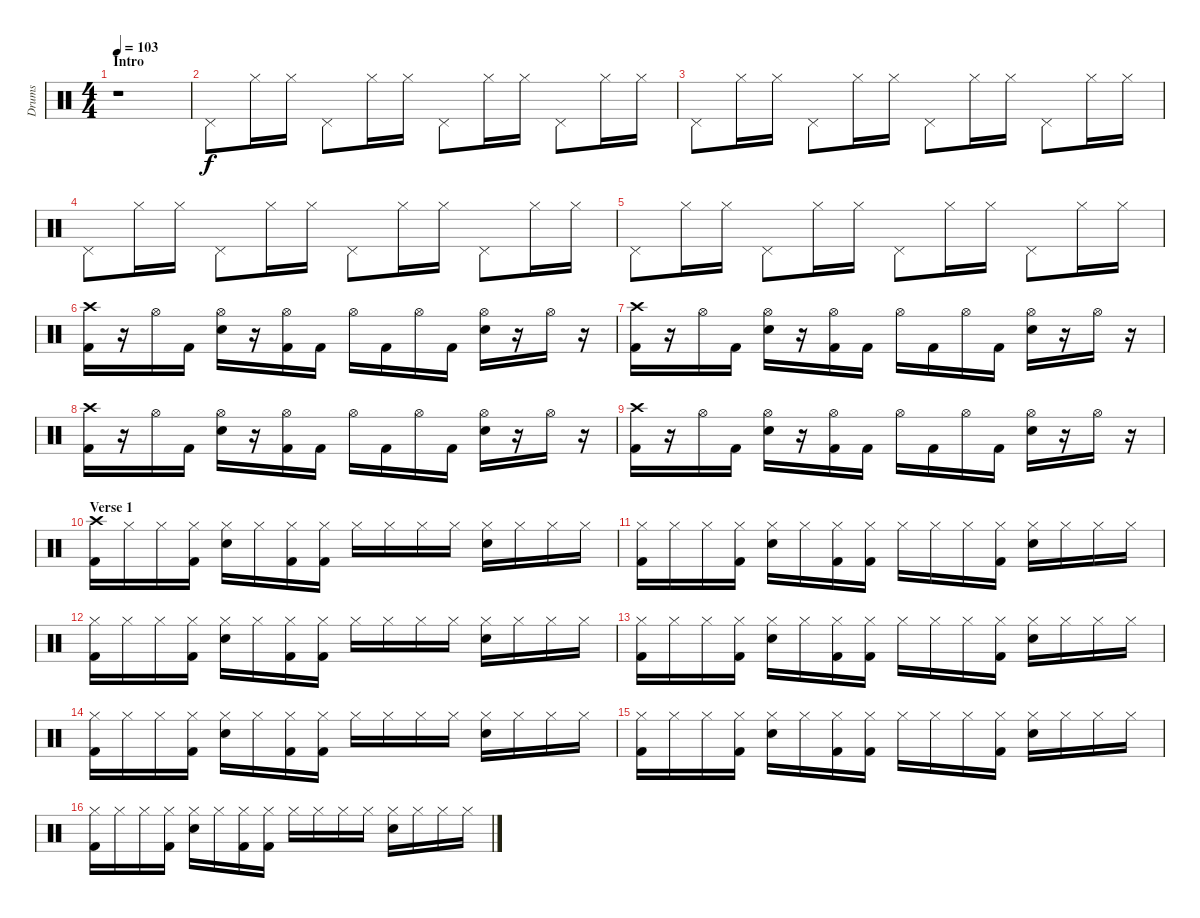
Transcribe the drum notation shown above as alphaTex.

\track ("Drums" "Drums") {instrument percussion}
\staff {score}
\articulation defaults
\ts (4 4)
\section ("" "Intro")
\tempo 103
\clef neutral
\ks c
r.1{dy f} |
"Pedal Hi-Hat (hit)".8 "Hi-Hat (closed)".16 "Hi-Hat (closed)".16 "Pedal Hi-Hat (hit)".8 "Hi-Hat (closed)".16 "Hi-Hat (closed)".16 "Pedal Hi-Hat (hit)".8 "Hi-Hat (closed)".16 "Hi-Hat (closed)".16 "Pedal Hi-Hat (hit)".8 "Hi-Hat (closed)".16 "Hi-Hat (closed)".16 |
"Pedal Hi-Hat (hit)".8 "Hi-Hat (closed)".16 "Hi-Hat (closed)".16 "Pedal Hi-Hat (hit)".8 "Hi-Hat (closed)".16 "Hi-Hat (closed)".16 "Pedal Hi-Hat (hit)".8 "Hi-Hat (closed)".16 "Hi-Hat (closed)".16 "Pedal Hi-Hat (hit)".8 "Hi-Hat (closed)".16 "Hi-Hat (closed)".16 |
"Pedal Hi-Hat (hit)".8 "Hi-Hat (closed)".16 "Hi-Hat (closed)".16 "Pedal Hi-Hat (hit)".8 "Hi-Hat (closed)".16 "Hi-Hat (closed)".16 "Pedal Hi-Hat (hit)".8 "Hi-Hat (closed)".16 "Hi-Hat (closed)".16 "Pedal Hi-Hat (hit)".8 "Hi-Hat (closed)".16 "Hi-Hat (closed)".16 |
"Pedal Hi-Hat (hit)".8 "Hi-Hat (closed)".16 "Hi-Hat (closed)".16 "Pedal Hi-Hat (hit)".8 "Hi-Hat (closed)".16 "Hi-Hat (closed)".16 "Pedal Hi-Hat (hit)".8 "Hi-Hat (closed)".16 "Hi-Hat (closed)".16 "Pedal Hi-Hat (hit)".8 "Hi-Hat (closed)".16 "Hi-Hat (closed)".16 |
("Crash high (hit)" "Kick (hit) 2").16 r.16 "Hi-Hat (open)".16 "Kick (hit) 2".16 ("Hi-Hat (open)" "Electric Snare (hit)").16 r.16 ("Hi-Hat (open)" "Kick (hit) 2").16 "Kick (hit) 2".16 "Hi-Hat (open)".16 "Kick (hit) 2".16 "Hi-Hat (open)".16 "Kick (hit) 2".16 ("Hi-Hat (open)" "Electric Snare (hit)").16 r.16 "Hi-Hat (open)".16 r.16 |
("Crash high (hit)" "Kick (hit) 2").16 r.16 "Hi-Hat (open)".16 "Kick (hit) 2".16 ("Hi-Hat (open)" "Electric Snare (hit)").16 r.16 ("Hi-Hat (open)" "Kick (hit) 2").16 "Kick (hit) 2".16 "Hi-Hat (open)".16 "Kick (hit) 2".16 "Hi-Hat (open)".16 "Kick (hit) 2".16 ("Hi-Hat (open)" "Electric Snare (hit)").16 r.16 "Hi-Hat (open)".16 r.16 |
("Crash high (hit)" "Kick (hit) 2").16 r.16 "Hi-Hat (open)".16 "Kick (hit) 2".16 ("Hi-Hat (open)" "Electric Snare (hit)").16 r.16 ("Hi-Hat (open)" "Kick (hit) 2").16 "Kick (hit) 2".16 "Hi-Hat (open)".16 "Kick (hit) 2".16 "Hi-Hat (open)".16 "Kick (hit) 2".16 ("Hi-Hat (open)" "Electric Snare (hit)").16 r.16 "Hi-Hat (open)".16 r.16 |
("Crash high (hit)" "Kick (hit) 2").16 r.16 "Hi-Hat (open)".16 "Kick (hit) 2".16 ("Hi-Hat (open)" "Electric Snare (hit)").16 r.16 ("Hi-Hat (open)" "Kick (hit) 2").16 "Kick (hit) 2".16 "Hi-Hat (open)".16 "Kick (hit) 2".16 "Hi-Hat (open)".16 "Kick (hit) 2".16 ("Hi-Hat (open)" "Electric Snare (hit)").16 r.16 "Hi-Hat (open)".16 r.16 |
\section ("" "Verse 1")
("Crash high (hit)" "Kick (hit) 2").16 "Hi-Hat (closed)".16 "Hi-Hat (closed)".16 ("Hi-Hat (closed)" "Kick (hit) 2").16 ("Hi-Hat (closed)" "Electric Snare (hit)").16 "Hi-Hat (closed)".16 ("Hi-Hat (closed)" "Kick (hit) 2").16 ("Hi-Hat (closed)" "Kick (hit) 2").16 "Hi-Hat (closed)".16 "Hi-Hat (closed)".16 "Hi-Hat (closed)".16 "Hi-Hat (closed)".16 ("Hi-Hat (closed)" "Electric Snare (hit)").16 "Hi-Hat (closed)".16 "Hi-Hat (closed)".16 "Hi-Hat (closed)".16 |
("Hi-Hat (closed)" "Kick (hit) 2").16 "Hi-Hat (closed)".16 "Hi-Hat (closed)".16 ("Hi-Hat (closed)" "Kick (hit) 2").16 ("Hi-Hat (closed)" "Electric Snare (hit)").16 "Hi-Hat (closed)".16 ("Hi-Hat (closed)" "Kick (hit) 2").16 ("Hi-Hat (closed)" "Kick (hit) 2").16 "Hi-Hat (closed)".16 "Hi-Hat (closed)".16 "Hi-Hat (closed)".16 ("Hi-Hat (closed)" "Kick (hit) 2").16 ("Hi-Hat (closed)" "Electric Snare (hit)").16 "Hi-Hat (closed)".16 "Hi-Hat (closed)".16 "Hi-Hat (closed)".16 |
("Hi-Hat (closed)" "Kick (hit) 2").16 "Hi-Hat (closed)".16 "Hi-Hat (closed)".16 ("Hi-Hat (closed)" "Kick (hit) 2").16 ("Hi-Hat (closed)" "Electric Snare (hit)").16 "Hi-Hat (closed)".16 ("Hi-Hat (closed)" "Kick (hit) 2").16 ("Hi-Hat (closed)" "Kick (hit) 2").16 "Hi-Hat (closed)".16 "Hi-Hat (closed)".16 "Hi-Hat (closed)".16 "Hi-Hat (closed)".16 ("Hi-Hat (closed)" "Electric Snare (hit)").16 "Hi-Hat (closed)".16 "Hi-Hat (closed)".16 "Hi-Hat (closed)".16 |
("Hi-Hat (closed)" "Kick (hit) 2").16 "Hi-Hat (closed)".16 "Hi-Hat (closed)".16 ("Hi-Hat (closed)" "Kick (hit) 2").16 ("Hi-Hat (closed)" "Electric Snare (hit)").16 "Hi-Hat (closed)".16 ("Hi-Hat (closed)" "Kick (hit) 2").16 ("Hi-Hat (closed)" "Kick (hit) 2").16 "Hi-Hat (closed)".16 "Hi-Hat (closed)".16 "Hi-Hat (closed)".16 ("Hi-Hat (closed)" "Kick (hit) 2").16 ("Hi-Hat (closed)" "Electric Snare (hit)").16 "Hi-Hat (closed)".16 "Hi-Hat (closed)".16 "Hi-Hat (closed)".16 |
("Hi-Hat (closed)" "Kick (hit) 2").16 "Hi-Hat (closed)".16 "Hi-Hat (closed)".16 ("Hi-Hat (closed)" "Kick (hit) 2").16 ("Hi-Hat (closed)" "Electric Snare (hit)").16 "Hi-Hat (closed)".16 ("Hi-Hat (closed)" "Kick (hit) 2").16 ("Hi-Hat (closed)" "Kick (hit) 2").16 "Hi-Hat (closed)".16 "Hi-Hat (closed)".16 "Hi-Hat (closed)".16 "Hi-Hat (closed)".16 ("Hi-Hat (closed)" "Electric Snare (hit)").16 "Hi-Hat (closed)".16 "Hi-Hat (closed)".16 "Hi-Hat (closed)".16 |
("Hi-Hat (closed)" "Kick (hit) 2").16 "Hi-Hat (closed)".16 "Hi-Hat (closed)".16 ("Hi-Hat (closed)" "Kick (hit) 2").16 ("Hi-Hat (closed)" "Electric Snare (hit)").16 "Hi-Hat (closed)".16 ("Hi-Hat (closed)" "Kick (hit) 2").16 ("Hi-Hat (closed)" "Kick (hit) 2").16 "Hi-Hat (closed)".16 "Hi-Hat (closed)".16 "Hi-Hat (closed)".16 ("Hi-Hat (closed)" "Kick (hit) 2").16 ("Hi-Hat (closed)" "Electric Snare (hit)").16 "Hi-Hat (closed)".16 "Hi-Hat (closed)".16 "Hi-Hat (closed)".16 |
("Hi-Hat (closed)" "Kick (hit) 2").16 "Hi-Hat (closed)".16 "Hi-Hat (closed)".16 ("Hi-Hat (closed)" "Kick (hit) 2").16 ("Hi-Hat (closed)" "Electric Snare (hit)").16 "Hi-Hat (closed)".16 ("Hi-Hat (closed)" "Kick (hit) 2").16 ("Hi-Hat (closed)" "Kick (hit) 2").16 "Hi-Hat (closed)".16 "Hi-Hat (closed)".16 "Hi-Hat (closed)".16 "Hi-Hat (closed)".16 ("Hi-Hat (closed)" "Electric Snare (hit)").16 "Hi-Hat (closed)".16 "Hi-Hat (closed)".16 "Hi-Hat (closed)".16
